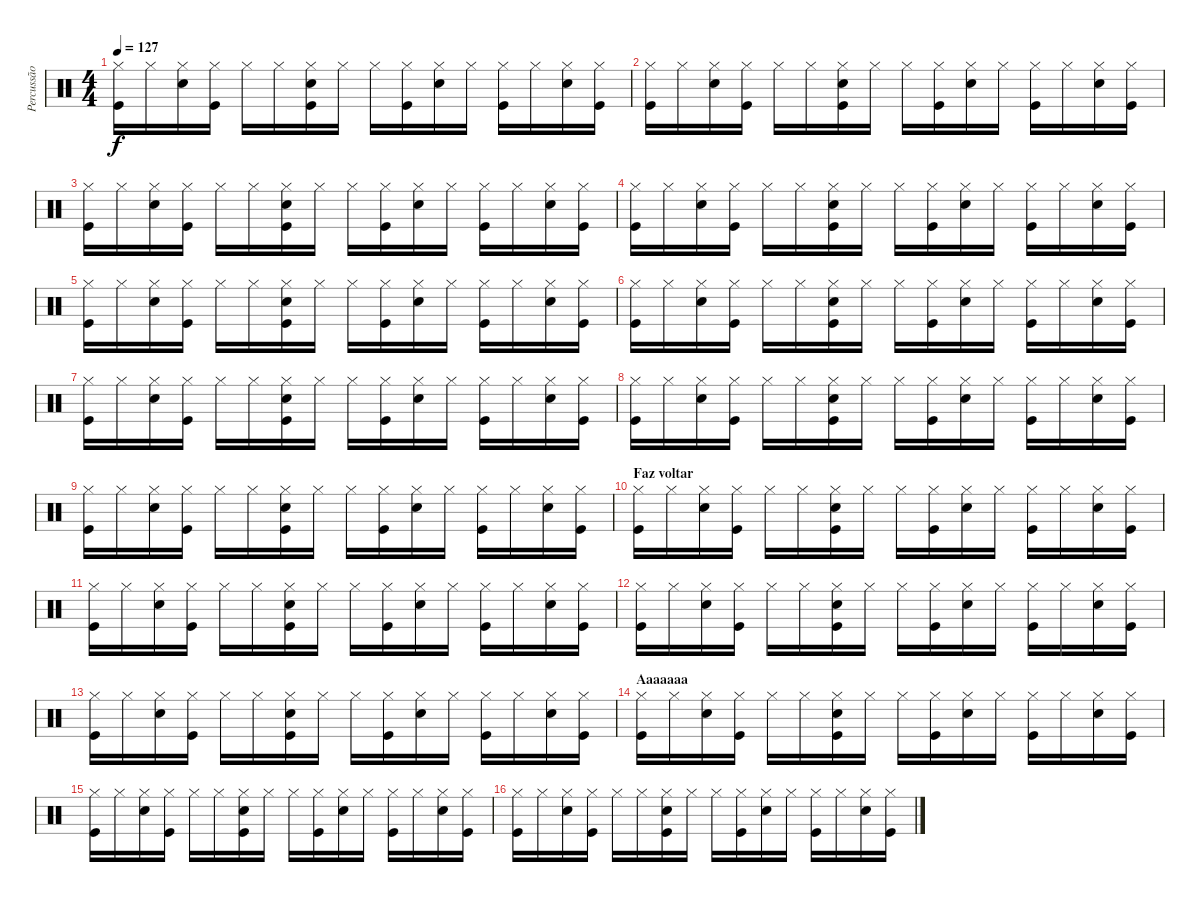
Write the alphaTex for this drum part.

\track ("Percussão" "Percussão") {instrument percussion}
\staff {score}
\articulation defaults
\ts (4 4)
\tempo 127
\clef neutral
\ks c
("Kick (hit)" "Hi-Hat (closed)").16{dy f} "Hi-Hat (closed)".16 ("Hi-Hat (closed)" "Snare (hit) 2").16 ("Kick (hit)" "Hi-Hat (closed)").16 "Hi-Hat (closed)".16 "Hi-Hat (closed)".16 ("Kick (hit)" "Hi-Hat (closed)" "Snare (hit) 2").16 "Hi-Hat (closed)".16 "Hi-Hat (closed)".16 ("Kick (hit)" "Hi-Hat (closed)").16 ("Hi-Hat (closed)" "Snare (hit) 2").16 "Hi-Hat (closed)".16 ("Kick (hit)" "Hi-Hat (closed)").16 "Hi-Hat (closed)".16 ("Hi-Hat (closed)" "Snare (hit) 2").16 ("Kick (hit)" "Hi-Hat (closed)").16 |
("Kick (hit)" "Hi-Hat (closed)").16 "Hi-Hat (closed)".16 ("Hi-Hat (closed)" "Snare (hit) 2").16 ("Kick (hit)" "Hi-Hat (closed)").16 "Hi-Hat (closed)".16 "Hi-Hat (closed)".16 ("Kick (hit)" "Hi-Hat (closed)" "Snare (hit) 2").16 "Hi-Hat (closed)".16 "Hi-Hat (closed)".16 ("Kick (hit)" "Hi-Hat (closed)").16 ("Hi-Hat (closed)" "Snare (hit) 2").16 "Hi-Hat (closed)".16 ("Kick (hit)" "Hi-Hat (closed)").16 "Hi-Hat (closed)".16 ("Hi-Hat (closed)" "Snare (hit) 2").16 ("Kick (hit)" "Hi-Hat (closed)").16 |
("Kick (hit)" "Hi-Hat (closed)").16 "Hi-Hat (closed)".16 ("Hi-Hat (closed)" "Snare (hit) 2").16 ("Kick (hit)" "Hi-Hat (closed)").16 "Hi-Hat (closed)".16 "Hi-Hat (closed)".16 ("Kick (hit)" "Hi-Hat (closed)" "Snare (hit) 2").16 "Hi-Hat (closed)".16 "Hi-Hat (closed)".16 ("Kick (hit)" "Hi-Hat (closed)").16 ("Hi-Hat (closed)" "Snare (hit) 2").16 "Hi-Hat (closed)".16 ("Kick (hit)" "Hi-Hat (closed)").16 "Hi-Hat (closed)".16 ("Hi-Hat (closed)" "Snare (hit) 2").16 ("Kick (hit)" "Hi-Hat (closed)").16 |
("Kick (hit)" "Hi-Hat (closed)").16 "Hi-Hat (closed)".16 ("Hi-Hat (closed)" "Snare (hit) 2").16 ("Kick (hit)" "Hi-Hat (closed)").16 "Hi-Hat (closed)".16 "Hi-Hat (closed)".16 ("Kick (hit)" "Hi-Hat (closed)" "Snare (hit) 2").16 "Hi-Hat (closed)".16 "Hi-Hat (closed)".16 ("Kick (hit)" "Hi-Hat (closed)").16 ("Hi-Hat (closed)" "Snare (hit) 2").16 "Hi-Hat (closed)".16 ("Kick (hit)" "Hi-Hat (closed)").16 "Hi-Hat (closed)".16 ("Hi-Hat (closed)" "Snare (hit) 2").16 ("Kick (hit)" "Hi-Hat (closed)").16 |
("Kick (hit)" "Hi-Hat (closed)").16 "Hi-Hat (closed)".16 ("Hi-Hat (closed)" "Snare (hit) 2").16 ("Kick (hit)" "Hi-Hat (closed)").16 "Hi-Hat (closed)".16 "Hi-Hat (closed)".16 ("Kick (hit)" "Hi-Hat (closed)" "Snare (hit) 2").16 "Hi-Hat (closed)".16 "Hi-Hat (closed)".16 ("Kick (hit)" "Hi-Hat (closed)").16 ("Hi-Hat (closed)" "Snare (hit) 2").16 "Hi-Hat (closed)".16 ("Kick (hit)" "Hi-Hat (closed)").16 "Hi-Hat (closed)".16 ("Hi-Hat (closed)" "Snare (hit) 2").16 ("Kick (hit)" "Hi-Hat (closed)").16 |
("Kick (hit)" "Hi-Hat (closed)").16 "Hi-Hat (closed)".16 ("Hi-Hat (closed)" "Snare (hit) 2").16 ("Kick (hit)" "Hi-Hat (closed)").16 "Hi-Hat (closed)".16 "Hi-Hat (closed)".16 ("Kick (hit)" "Hi-Hat (closed)" "Snare (hit) 2").16 "Hi-Hat (closed)".16 "Hi-Hat (closed)".16 ("Kick (hit)" "Hi-Hat (closed)").16 ("Hi-Hat (closed)" "Snare (hit) 2").16 "Hi-Hat (closed)".16 ("Kick (hit)" "Hi-Hat (closed)").16 "Hi-Hat (closed)".16 ("Hi-Hat (closed)" "Snare (hit) 2").16 ("Kick (hit)" "Hi-Hat (closed)").16 |
("Kick (hit)" "Hi-Hat (closed)").16 "Hi-Hat (closed)".16 ("Hi-Hat (closed)" "Snare (hit) 2").16 ("Kick (hit)" "Hi-Hat (closed)").16 "Hi-Hat (closed)".16 "Hi-Hat (closed)".16 ("Kick (hit)" "Hi-Hat (closed)" "Snare (hit) 2").16 "Hi-Hat (closed)".16 "Hi-Hat (closed)".16 ("Kick (hit)" "Hi-Hat (closed)").16 ("Hi-Hat (closed)" "Snare (hit) 2").16 "Hi-Hat (closed)".16 ("Kick (hit)" "Hi-Hat (closed)").16 "Hi-Hat (closed)".16 ("Hi-Hat (closed)" "Snare (hit) 2").16 ("Kick (hit)" "Hi-Hat (closed)").16 |
("Kick (hit)" "Hi-Hat (closed)").16 "Hi-Hat (closed)".16 ("Hi-Hat (closed)" "Snare (hit) 2").16 ("Kick (hit)" "Hi-Hat (closed)").16 "Hi-Hat (closed)".16 "Hi-Hat (closed)".16 ("Kick (hit)" "Hi-Hat (closed)" "Snare (hit) 2").16 "Hi-Hat (closed)".16 "Hi-Hat (closed)".16 ("Kick (hit)" "Hi-Hat (closed)").16 ("Hi-Hat (closed)" "Snare (hit) 2").16 "Hi-Hat (closed)".16 ("Kick (hit)" "Hi-Hat (closed)").16 "Hi-Hat (closed)".16 ("Hi-Hat (closed)" "Snare (hit) 2").16 ("Kick (hit)" "Hi-Hat (closed)").16 |
("Kick (hit)" "Hi-Hat (closed)").16 "Hi-Hat (closed)".16 ("Hi-Hat (closed)" "Snare (hit) 2").16 ("Kick (hit)" "Hi-Hat (closed)").16 "Hi-Hat (closed)".16 "Hi-Hat (closed)".16 ("Kick (hit)" "Hi-Hat (closed)" "Snare (hit) 2").16 "Hi-Hat (closed)".16 "Hi-Hat (closed)".16 ("Kick (hit)" "Hi-Hat (closed)").16 ("Hi-Hat (closed)" "Snare (hit) 2").16 "Hi-Hat (closed)".16 ("Kick (hit)" "Hi-Hat (closed)").16 "Hi-Hat (closed)".16 ("Hi-Hat (closed)" "Snare (hit) 2").16 ("Kick (hit)" "Hi-Hat (closed)").16 |
\section ("" "Faz voltar")
("Kick (hit)" "Hi-Hat (closed)").16 "Hi-Hat (closed)".16 ("Hi-Hat (closed)" "Snare (hit) 2").16 ("Kick (hit)" "Hi-Hat (closed)").16 "Hi-Hat (closed)".16 "Hi-Hat (closed)".16 ("Kick (hit)" "Hi-Hat (closed)" "Snare (hit) 2").16 "Hi-Hat (closed)".16 "Hi-Hat (closed)".16 ("Kick (hit)" "Hi-Hat (closed)").16 ("Hi-Hat (closed)" "Snare (hit) 2").16 "Hi-Hat (closed)".16 ("Kick (hit)" "Hi-Hat (closed)").16 "Hi-Hat (closed)".16 ("Hi-Hat (closed)" "Snare (hit) 2").16 ("Kick (hit)" "Hi-Hat (closed)").16 |
("Kick (hit)" "Hi-Hat (closed)").16 "Hi-Hat (closed)".16 ("Hi-Hat (closed)" "Snare (hit) 2").16 ("Kick (hit)" "Hi-Hat (closed)").16 "Hi-Hat (closed)".16 "Hi-Hat (closed)".16 ("Kick (hit)" "Hi-Hat (closed)" "Snare (hit) 2").16 "Hi-Hat (closed)".16 "Hi-Hat (closed)".16 ("Kick (hit)" "Hi-Hat (closed)").16 ("Hi-Hat (closed)" "Snare (hit) 2").16 "Hi-Hat (closed)".16 ("Kick (hit)" "Hi-Hat (closed)").16 "Hi-Hat (closed)".16 ("Hi-Hat (closed)" "Snare (hit) 2").16 ("Kick (hit)" "Hi-Hat (closed)").16 |
("Kick (hit)" "Hi-Hat (closed)").16 "Hi-Hat (closed)".16 ("Hi-Hat (closed)" "Snare (hit) 2").16 ("Kick (hit)" "Hi-Hat (closed)").16 "Hi-Hat (closed)".16 "Hi-Hat (closed)".16 ("Kick (hit)" "Hi-Hat (closed)" "Snare (hit) 2").16 "Hi-Hat (closed)".16 "Hi-Hat (closed)".16 ("Kick (hit)" "Hi-Hat (closed)").16 ("Hi-Hat (closed)" "Snare (hit) 2").16 "Hi-Hat (closed)".16 ("Kick (hit)" "Hi-Hat (closed)").16 "Hi-Hat (closed)".16 ("Hi-Hat (closed)" "Snare (hit) 2").16 ("Kick (hit)" "Hi-Hat (closed)").16 |
("Kick (hit)" "Hi-Hat (closed)").16 "Hi-Hat (closed)".16 ("Hi-Hat (closed)" "Snare (hit) 2").16 ("Kick (hit)" "Hi-Hat (closed)").16 "Hi-Hat (closed)".16 "Hi-Hat (closed)".16 ("Kick (hit)" "Hi-Hat (closed)" "Snare (hit) 2").16 "Hi-Hat (closed)".16 "Hi-Hat (closed)".16 ("Kick (hit)" "Hi-Hat (closed)").16 ("Hi-Hat (closed)" "Snare (hit) 2").16 "Hi-Hat (closed)".16 ("Kick (hit)" "Hi-Hat (closed)").16 "Hi-Hat (closed)".16 ("Hi-Hat (closed)" "Snare (hit) 2").16 ("Kick (hit)" "Hi-Hat (closed)").16 |
\section ("" "Aaaaaaa")
("Kick (hit)" "Hi-Hat (closed)").16 "Hi-Hat (closed)".16 ("Hi-Hat (closed)" "Snare (hit) 2").16 ("Kick (hit)" "Hi-Hat (closed)").16 "Hi-Hat (closed)".16 "Hi-Hat (closed)".16 ("Kick (hit)" "Hi-Hat (closed)" "Snare (hit) 2").16 "Hi-Hat (closed)".16 "Hi-Hat (closed)".16 ("Kick (hit)" "Hi-Hat (closed)").16 ("Hi-Hat (closed)" "Snare (hit) 2").16 "Hi-Hat (closed)".16 ("Kick (hit)" "Hi-Hat (closed)").16 "Hi-Hat (closed)".16 ("Hi-Hat (closed)" "Snare (hit) 2").16 ("Kick (hit)" "Hi-Hat (closed)").16 |
("Kick (hit)" "Hi-Hat (closed)").16 "Hi-Hat (closed)".16 ("Hi-Hat (closed)" "Snare (hit) 2").16 ("Kick (hit)" "Hi-Hat (closed)").16 "Hi-Hat (closed)".16 "Hi-Hat (closed)".16 ("Kick (hit)" "Hi-Hat (closed)" "Snare (hit) 2").16 "Hi-Hat (closed)".16 "Hi-Hat (closed)".16 ("Kick (hit)" "Hi-Hat (closed)").16 ("Hi-Hat (closed)" "Snare (hit) 2").16 "Hi-Hat (closed)".16 ("Kick (hit)" "Hi-Hat (closed)").16 "Hi-Hat (closed)".16 ("Hi-Hat (closed)" "Snare (hit) 2").16 ("Kick (hit)" "Hi-Hat (closed)").16 |
("Kick (hit)" "Hi-Hat (closed)").16 "Hi-Hat (closed)".16 ("Hi-Hat (closed)" "Snare (hit) 2").16 ("Kick (hit)" "Hi-Hat (closed)").16 "Hi-Hat (closed)".16 "Hi-Hat (closed)".16 ("Kick (hit)" "Hi-Hat (closed)" "Snare (hit) 2").16 "Hi-Hat (closed)".16 "Hi-Hat (closed)".16 ("Kick (hit)" "Hi-Hat (closed)").16 ("Hi-Hat (closed)" "Snare (hit) 2").16 "Hi-Hat (closed)".16 ("Kick (hit)" "Hi-Hat (closed)").16 "Hi-Hat (closed)".16 ("Hi-Hat (closed)" "Snare (hit) 2").16 ("Kick (hit)" "Hi-Hat (closed)").16
